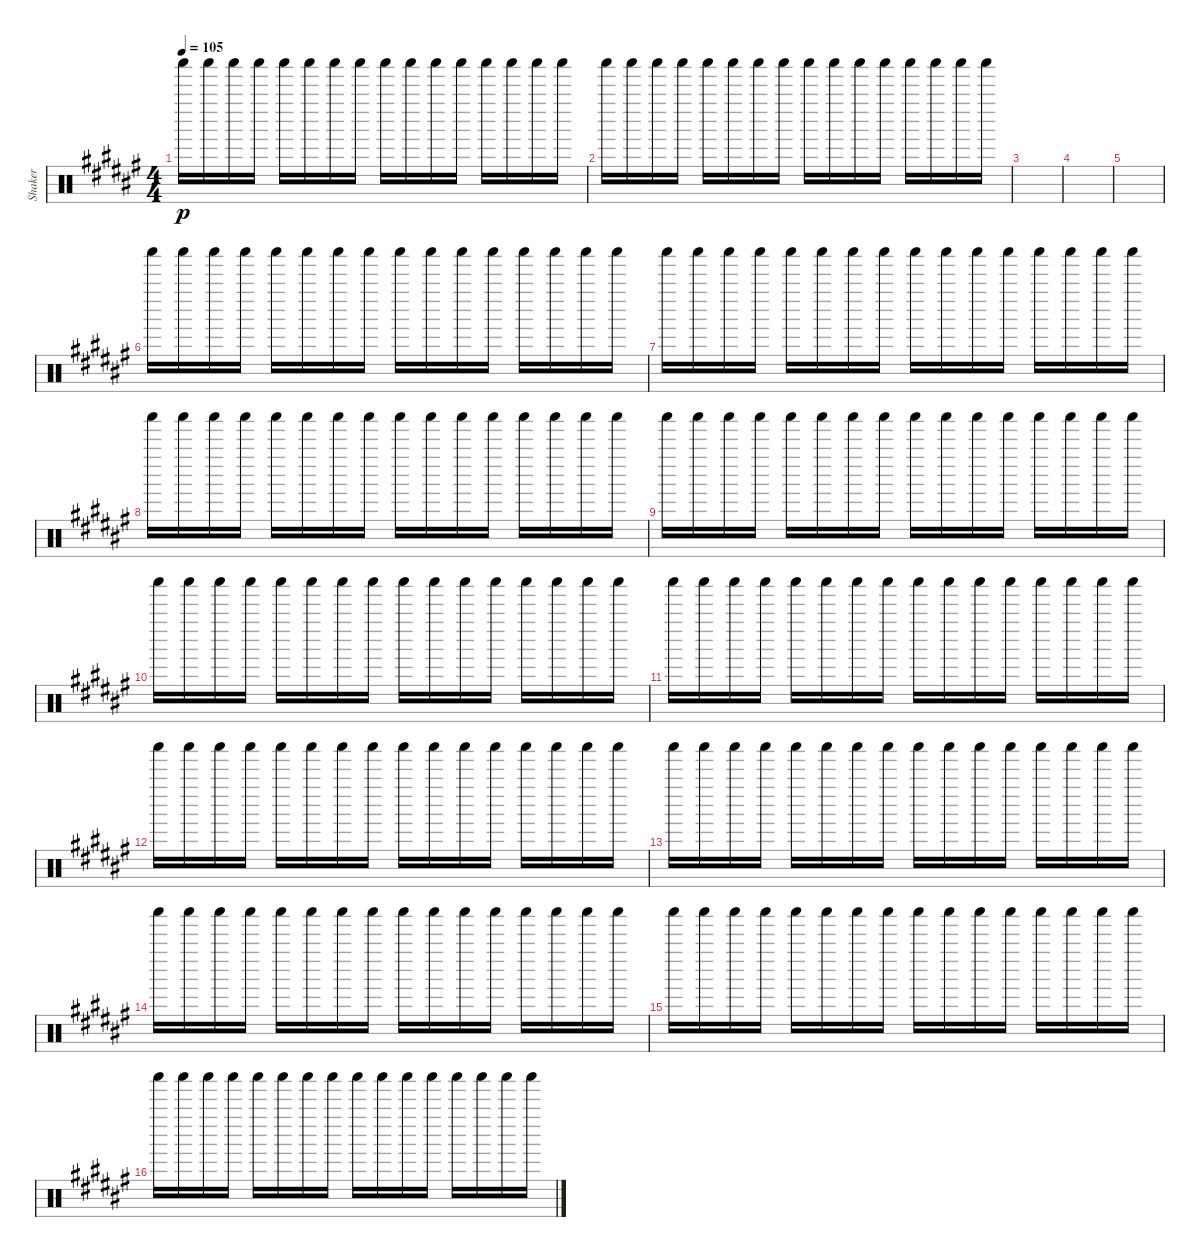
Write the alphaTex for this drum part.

\track ("Shaker" "Shaker") {instrument percussion}
\staff {score}
\articulation defaults
\ts (4 4)
\tempo 105
\clef neutral
\ks d#minor "Shaker (hit)".16{dy p} "Shaker (hit)".16 "Shaker (hit)".16 "Shaker (hit)".16 "Shaker (hit)".16 "Shaker (hit)".16 "Shaker (hit)".16 "Shaker (hit)".16 "Shaker (hit)".16 "Shaker (hit)".16 "Shaker (hit)".16 "Shaker (hit)".16 "Shaker (hit)".16 "Shaker (hit)".16 "Shaker (hit)".16 "Shaker (hit)".16
|
"Shaker (hit)".16 "Shaker (hit)".16 "Shaker (hit)".16 "Shaker (hit)".16 "Shaker (hit)".16 "Shaker (hit)".16 "Shaker (hit)".16 "Shaker (hit)".16 "Shaker (hit)".16 "Shaker (hit)".16 "Shaker (hit)".16 "Shaker (hit)".16 "Shaker (hit)".16 "Shaker (hit)".16 "Shaker (hit)".16 "Shaker (hit)".16 |
|
|
|
"Shaker (hit)".16 "Shaker (hit)".16 "Shaker (hit)".16 "Shaker (hit)".16 "Shaker (hit)".16 "Shaker (hit)".16 "Shaker (hit)".16 "Shaker (hit)".16 "Shaker (hit)".16 "Shaker (hit)".16 "Shaker (hit)".16 "Shaker (hit)".16 "Shaker (hit)".16 "Shaker (hit)".16 "Shaker (hit)".16 "Shaker (hit)".16 |
"Shaker (hit)".16 "Shaker (hit)".16 "Shaker (hit)".16 "Shaker (hit)".16 "Shaker (hit)".16 "Shaker (hit)".16 "Shaker (hit)".16 "Shaker (hit)".16 "Shaker (hit)".16 "Shaker (hit)".16 "Shaker (hit)".16 "Shaker (hit)".16 "Shaker (hit)".16 "Shaker (hit)".16 "Shaker (hit)".16 "Shaker (hit)".16 |
"Shaker (hit)".16 "Shaker (hit)".16 "Shaker (hit)".16 "Shaker (hit)".16 "Shaker (hit)".16 "Shaker (hit)".16 "Shaker (hit)".16 "Shaker (hit)".16 "Shaker (hit)".16 "Shaker (hit)".16 "Shaker (hit)".16 "Shaker (hit)".16 "Shaker (hit)".16 "Shaker (hit)".16 "Shaker (hit)".16 "Shaker (hit)".16 |
"Shaker (hit)".16 "Shaker (hit)".16 "Shaker (hit)".16 "Shaker (hit)".16 "Shaker (hit)".16 "Shaker (hit)".16 "Shaker (hit)".16 "Shaker (hit)".16 "Shaker (hit)".16 "Shaker (hit)".16 "Shaker (hit)".16 "Shaker (hit)".16 "Shaker (hit)".16 "Shaker (hit)".16 "Shaker (hit)".16 "Shaker (hit)".16 |
"Shaker (hit)".16 "Shaker (hit)".16 "Shaker (hit)".16 "Shaker (hit)".16 "Shaker (hit)".16 "Shaker (hit)".16 "Shaker (hit)".16 "Shaker (hit)".16 "Shaker (hit)".16 "Shaker (hit)".16 "Shaker (hit)".16 "Shaker (hit)".16 "Shaker (hit)".16 "Shaker (hit)".16 "Shaker (hit)".16 "Shaker (hit)".16 |
"Shaker (hit)".16 "Shaker (hit)".16 "Shaker (hit)".16 "Shaker (hit)".16 "Shaker (hit)".16 "Shaker (hit)".16 "Shaker (hit)".16 "Shaker (hit)".16 "Shaker (hit)".16 "Shaker (hit)".16 "Shaker (hit)".16 "Shaker (hit)".16 "Shaker (hit)".16 "Shaker (hit)".16 "Shaker (hit)".16 "Shaker (hit)".16 |
"Shaker (hit)".16 "Shaker (hit)".16 "Shaker (hit)".16 "Shaker (hit)".16 "Shaker (hit)".16 "Shaker (hit)".16 "Shaker (hit)".16 "Shaker (hit)".16 "Shaker (hit)".16 "Shaker (hit)".16 "Shaker (hit)".16 "Shaker (hit)".16 "Shaker (hit)".16 "Shaker (hit)".16 "Shaker (hit)".16 "Shaker (hit)".16 |
"Shaker (hit)".16 "Shaker (hit)".16 "Shaker (hit)".16 "Shaker (hit)".16 "Shaker (hit)".16 "Shaker (hit)".16 "Shaker (hit)".16 "Shaker (hit)".16 "Shaker (hit)".16 "Shaker (hit)".16 "Shaker (hit)".16 "Shaker (hit)".16 "Shaker (hit)".16 "Shaker (hit)".16 "Shaker (hit)".16 "Shaker (hit)".16 |
"Shaker (hit)".16 "Shaker (hit)".16 "Shaker (hit)".16 "Shaker (hit)".16 "Shaker (hit)".16 "Shaker (hit)".16 "Shaker (hit)".16 "Shaker (hit)".16 "Shaker (hit)".16 "Shaker (hit)".16 "Shaker (hit)".16 "Shaker (hit)".16 "Shaker (hit)".16 "Shaker (hit)".16 "Shaker (hit)".16 "Shaker (hit)".16 |
"Shaker (hit)".16 "Shaker (hit)".16 "Shaker (hit)".16 "Shaker (hit)".16 "Shaker (hit)".16 "Shaker (hit)".16 "Shaker (hit)".16 "Shaker (hit)".16 "Shaker (hit)".16 "Shaker (hit)".16 "Shaker (hit)".16 "Shaker (hit)".16 "Shaker (hit)".16 "Shaker (hit)".16 "Shaker (hit)".16 "Shaker (hit)".16 |
"Shaker (hit)".16 "Shaker (hit)".16 "Shaker (hit)".16 "Shaker (hit)".16 "Shaker (hit)".16 "Shaker (hit)".16 "Shaker (hit)".16 "Shaker (hit)".16 "Shaker (hit)".16 "Shaker (hit)".16 "Shaker (hit)".16 "Shaker (hit)".16 "Shaker (hit)".16 "Shaker (hit)".16 "Shaker (hit)".16 "Shaker (hit)".16
